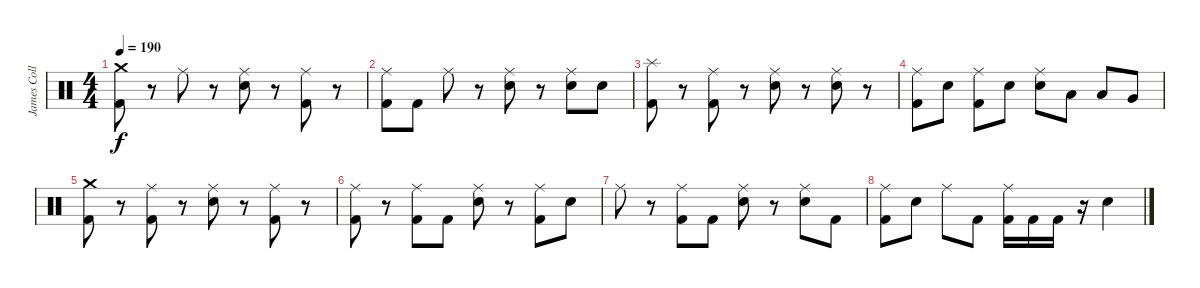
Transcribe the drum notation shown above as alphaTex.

\track ("James Collins" "James Coll") {instrument percussion}
\staff {score}
\articulation defaults
\ts (4 4)
\tempo 190
\clef neutral
\ks c
("Crash medium (hit)" "Kick (hit) 2").8{dy f} r.8 "Ride (middle)".8 r.8 ("Ride (middle)" "Electric Snare (hit)").8 r.8 ("Ride (middle)" "Kick (hit) 2").8 r.8 |
("Ride (middle)" "Kick (hit) 2").8 "Kick (hit) 2".8 "Ride (middle)".8 r.8 ("Ride (middle)" "Electric Snare (hit)").8 r.8 ("Ride (middle)" "Electric Snare (hit)").8 "Electric Snare (hit)".8 |
("Splash (hit)" "Kick (hit) 2").8 r.8 ("Ride (middle)" "Kick (hit) 2").8 r.8 ("Ride (middle)" "Electric Snare (hit)").8 r.8 ("Ride (middle)" "Electric Snare (hit)").8 r.8 |
("Ride (middle)" "Kick (hit) 2").8 "Electric Snare (hit)".8 ("Ride (middle)" "Kick (hit) 2").8 "Electric Snare (hit)".8 ("Ride (middle)" "Electric Snare (hit)").8 "Low Tom (hit)".8 "Low Tom (hit)".8 "Very Low Tom (hit)".8 |
("Crash medium (hit)" "Kick (hit) 2").8 r.8 ("Ride (middle)" "Kick (hit) 2").8 r.8 ("Ride (middle)" "Electric Snare (hit)").8 r.8 ("Ride (middle)" "Kick (hit) 2").8 r.8 |
("Ride (middle)" "Kick (hit) 2").8 r.8 ("Ride (middle)" "Kick (hit) 2").8 "Kick (hit) 2".8 ("Ride (middle)" "Electric Snare (hit)").8 r.8 ("Ride (middle)" "Kick (hit) 2").8 "Electric Snare (hit)".8 |
"Ride (middle)".8 r.8 ("Ride (middle)" "Kick (hit) 2").8 "Kick (hit) 2".8 ("Ride (middle)" "Electric Snare (hit)").8 r.8 ("Ride (middle)" "Electric Snare (hit)").8 "Kick (hit) 2".8 |
("Ride (middle)" "Kick (hit) 2").8 "Electric Snare (hit)".8 "Ride (middle)".8 "Kick (hit) 2".8 ("Ride (middle)" "Kick (hit) 2").16 "Kick (hit) 2".16 "Kick (hit) 2".16 r.16 "Electric Snare (hit)".4
